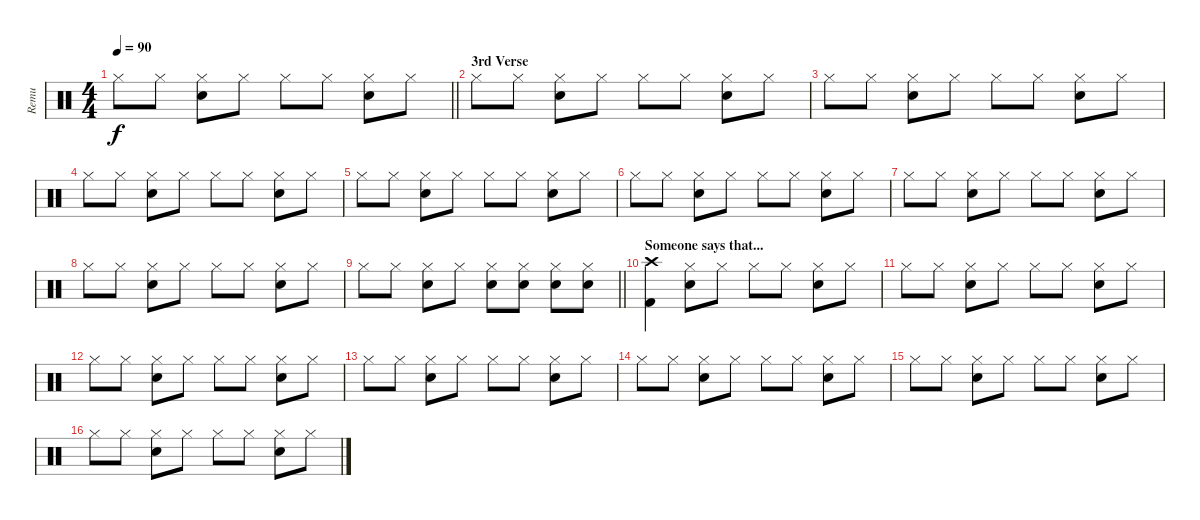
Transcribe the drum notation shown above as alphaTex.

\track ("Remu" "Remu") {instrument percussion}
\staff {score}
\articulation defaults
\ts (4 4)
\tempo 90
\clef neutral
\barLineRight lightlight
\ks c "Hi-Hat (closed)".8{dy f} "Hi-Hat (closed)".8
("Hi-Hat (closed)" "Snare (hit) 2").8 "Hi-Hat (closed)".8 "Hi-Hat (closed)".8 "Hi-Hat (closed)".8 ("Hi-Hat (closed)" "Snare (hit) 2").8 "Hi-Hat (closed)".8 |
\section ("" "3rd Verse")
"Hi-Hat (closed)".8 "Hi-Hat (closed)".8 ("Hi-Hat (closed)" "Snare (hit) 2").8 "Hi-Hat (closed)".8 "Hi-Hat (closed)".8 "Hi-Hat (closed)".8 ("Hi-Hat (closed)" "Snare (hit) 2").8 "Hi-Hat (closed)".8 |
"Hi-Hat (closed)".8 "Hi-Hat (closed)".8 ("Hi-Hat (closed)" "Snare (hit) 2").8 "Hi-Hat (closed)".8 "Hi-Hat (closed)".8 "Hi-Hat (closed)".8 ("Hi-Hat (closed)" "Snare (hit) 2").8 "Hi-Hat (closed)".8 |
"Hi-Hat (closed)".8 "Hi-Hat (closed)".8 ("Hi-Hat (closed)" "Snare (hit) 2").8 "Hi-Hat (closed)".8 "Hi-Hat (closed)".8 "Hi-Hat (closed)".8 ("Hi-Hat (closed)" "Snare (hit) 2").8 "Hi-Hat (closed)".8 |
"Hi-Hat (closed)".8 "Hi-Hat (closed)".8 ("Hi-Hat (closed)" "Snare (hit) 2").8 "Hi-Hat (closed)".8 "Hi-Hat (closed)".8 "Hi-Hat (closed)".8 ("Hi-Hat (closed)" "Snare (hit) 2").8 "Hi-Hat (closed)".8 |
"Hi-Hat (closed)".8 "Hi-Hat (closed)".8 ("Hi-Hat (closed)" "Snare (hit) 2").8 "Hi-Hat (closed)".8 "Hi-Hat (closed)".8 "Hi-Hat (closed)".8 ("Hi-Hat (closed)" "Snare (hit) 2").8 "Hi-Hat (closed)".8 |
"Hi-Hat (closed)".8 "Hi-Hat (closed)".8 ("Hi-Hat (closed)" "Snare (hit) 2").8 "Hi-Hat (closed)".8 "Hi-Hat (closed)".8 "Hi-Hat (closed)".8 ("Hi-Hat (closed)" "Snare (hit) 2").8 "Hi-Hat (closed)".8 |
"Hi-Hat (closed)".8 "Hi-Hat (closed)".8 ("Hi-Hat (closed)" "Snare (hit) 2").8 "Hi-Hat (closed)".8 "Hi-Hat (closed)".8 "Hi-Hat (closed)".8 ("Hi-Hat (closed)" "Snare (hit) 2").8 "Hi-Hat (closed)".8 |
\barLineRight lightlight "Hi-Hat (closed)".8 "Hi-Hat (closed)".8
("Hi-Hat (closed)" "Snare (hit) 2").8 "Hi-Hat (closed)".8 ("Hi-Hat (closed)" "Snare (hit) 2").8 ("Hi-Hat (closed)" "Snare (hit) 2").8 ("Hi-Hat (closed)" "Snare (hit) 2").8 ("Hi-Hat (closed)" "Snare (hit) 2").8 |
\section ("" "Someone says that...")
("Crash high (hit)" "Kick (hit) 2").4 ("Hi-Hat (closed)" "Snare (hit) 2").8 "Hi-Hat (closed)".8 "Hi-Hat (closed)".8 "Hi-Hat (closed)".8 ("Hi-Hat (closed)" "Snare (hit) 2").8 "Hi-Hat (closed)".8 |
"Hi-Hat (closed)".8 "Hi-Hat (closed)".8 ("Hi-Hat (closed)" "Snare (hit) 2").8 "Hi-Hat (closed)".8 "Hi-Hat (closed)".8 "Hi-Hat (closed)".8 ("Hi-Hat (closed)" "Snare (hit) 2").8 "Hi-Hat (closed)".8 |
"Hi-Hat (closed)".8 "Hi-Hat (closed)".8 ("Hi-Hat (closed)" "Snare (hit) 2").8 "Hi-Hat (closed)".8 "Hi-Hat (closed)".8 "Hi-Hat (closed)".8 ("Hi-Hat (closed)" "Snare (hit) 2").8 "Hi-Hat (closed)".8 |
"Hi-Hat (closed)".8 "Hi-Hat (closed)".8 ("Hi-Hat (closed)" "Snare (hit) 2").8 "Hi-Hat (closed)".8 "Hi-Hat (closed)".8 "Hi-Hat (closed)".8 ("Hi-Hat (closed)" "Snare (hit) 2").8 "Hi-Hat (closed)".8 |
"Hi-Hat (closed)".8 "Hi-Hat (closed)".8 ("Hi-Hat (closed)" "Snare (hit) 2").8 "Hi-Hat (closed)".8 "Hi-Hat (closed)".8 "Hi-Hat (closed)".8 ("Hi-Hat (closed)" "Snare (hit) 2").8 "Hi-Hat (closed)".8 |
"Hi-Hat (closed)".8 "Hi-Hat (closed)".8 ("Hi-Hat (closed)" "Snare (hit) 2").8 "Hi-Hat (closed)".8 "Hi-Hat (closed)".8 "Hi-Hat (closed)".8 ("Hi-Hat (closed)" "Snare (hit) 2").8 "Hi-Hat (closed)".8 |
"Hi-Hat (closed)".8 "Hi-Hat (closed)".8 ("Hi-Hat (closed)" "Snare (hit) 2").8 "Hi-Hat (closed)".8 "Hi-Hat (closed)".8 "Hi-Hat (closed)".8 ("Hi-Hat (closed)" "Snare (hit) 2").8 "Hi-Hat (closed)".8
